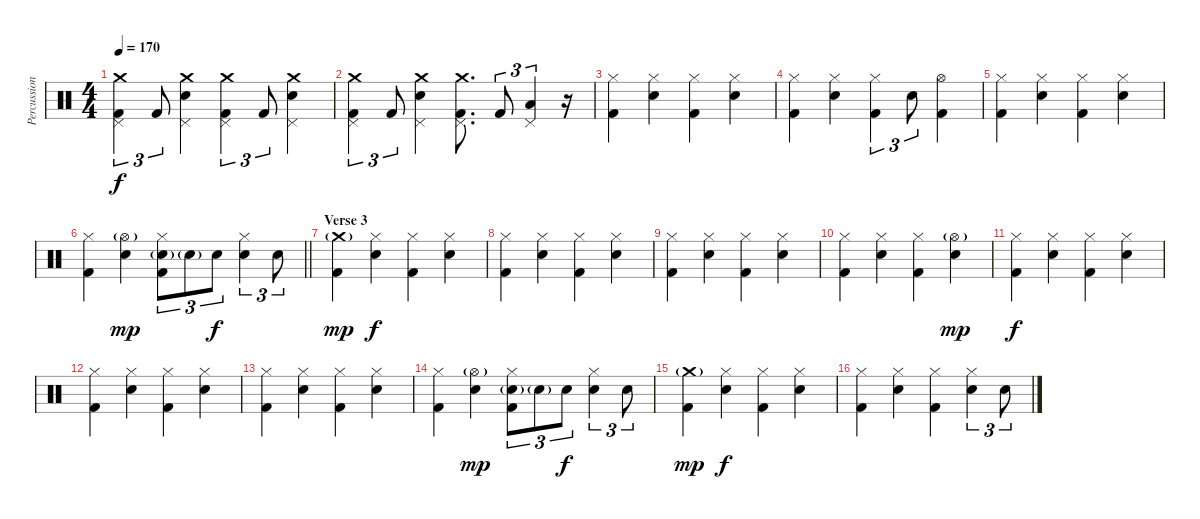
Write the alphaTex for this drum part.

\track ("Percussion" "Percussion") {instrument percussion}
\staff {score}
\articulation defaults
\ts (4 4)
\tempo 170
\clef neutral
\ks c
("Crash medium (hit)" "Pedal Hi-Hat (hit)" "Kick (hit) 2").4{tu (3 2) dy f} "Kick (hit) 2".8{tu (3 2)} ("Crash medium (hit)" "Pedal Hi-Hat (hit)" "Snare (hit) 2").4 ("Crash medium (hit)" "Pedal Hi-Hat (hit)" "Kick (hit) 2").4{tu (3 2)} "Kick (hit) 2".8{tu (3 2)} ("Crash medium (hit)" "Pedal Hi-Hat (hit)" "Snare (hit) 2").4 |
("Crash medium (hit)" "Pedal Hi-Hat (hit)" "Kick (hit) 2").4{tu (3 2)} "Kick (hit) 2".8{tu (3 2)} ("Crash medium (hit)" "Pedal Hi-Hat (hit)" "Snare (hit) 2").4 ("Crash medium (hit)" "Pedal Hi-Hat (hit)" "Kick (hit) 2").8{d} "Kick (hit) 2".8{tu (3 2)} ("Pedal Hi-Hat (hit)" "Low Floor Tom (hit)").4{tu (3 2)} r.16 |
("Hi-Hat (closed)" "Kick (hit) 2").4 ("Hi-Hat (closed)" "Snare (hit) 2").4 ("Hi-Hat (closed)" "Kick (hit) 2").4 ("Hi-Hat (closed)" "Snare (hit) 2").4 |
("Hi-Hat (closed)" "Kick (hit) 2").4 ("Hi-Hat (closed)" "Snare (hit) 2").4 ("Hi-Hat (closed)" "Kick (hit) 2").4{tu (3 2)} "Snare (hit) 2".8{tu (3 2)} ("Hi-Hat (open)" "Kick (hit) 2").4 |
("Hi-Hat (closed)" "Kick (hit) 2").4 ("Hi-Hat (closed)" "Snare (hit) 2").4 ("Hi-Hat (closed)" "Kick (hit) 2").4 ("Hi-Hat (closed)" "Snare (hit) 2").4 |
\barLineRight lightlight
("Hi-Hat (closed)" "Kick (hit) 2").4 ("Hi-Hat (open)"{g} "Snare (hit) 2").4{dy mp} ("Hi-Hat (closed)" "Snare (hit) 2"{g} "Kick (hit) 2").8{tu (3 2)} "Snare (hit) 2"{g}.8{tu (3 2)} "Snare (hit) 2".8{tu (3 2) dy f} ("Hi-Hat (closed)" "Snare (hit) 2").4{tu (3 2)} "Snare (hit) 2".8{tu (3 2)} |
\section ("" "Verse 3")
("Crash medium (hit)"{g} "Kick (hit) 2").4{dy mp} ("Hi-Hat (closed)" "Snare (hit) 2").4{dy f} ("Hi-Hat (closed)" "Kick (hit) 2").4 ("Hi-Hat (closed)" "Snare (hit) 2").4 |
("Hi-Hat (closed)" "Kick (hit) 2").4 ("Hi-Hat (closed)" "Snare (hit) 2").4 ("Hi-Hat (closed)" "Kick (hit) 2").4 ("Hi-Hat (closed)" "Snare (hit) 2").4 |
("Hi-Hat (closed)" "Kick (hit) 2").4 ("Hi-Hat (closed)" "Snare (hit) 2").4 ("Hi-Hat (closed)" "Kick (hit) 2").4 ("Hi-Hat (closed)" "Snare (hit) 2").4 |
("Hi-Hat (closed)" "Kick (hit) 2").4 ("Hi-Hat (closed)" "Snare (hit) 2").4 ("Hi-Hat (closed)" "Kick (hit) 2").4 ("Hi-Hat (open)"{g} "Snare (hit) 2").4{dy mp} |
("Hi-Hat (closed)" "Kick (hit) 2").4{dy f} ("Hi-Hat (closed)" "Snare (hit) 2").4 ("Hi-Hat (closed)" "Kick (hit) 2").4 ("Hi-Hat (closed)" "Snare (hit) 2").4 |
("Hi-Hat (closed)" "Kick (hit) 2").4 ("Hi-Hat (closed)" "Snare (hit) 2").4 ("Hi-Hat (closed)" "Kick (hit) 2").4 ("Hi-Hat (closed)" "Snare (hit) 2").4 |
("Hi-Hat (closed)" "Kick (hit) 2").4 ("Hi-Hat (closed)" "Snare (hit) 2").4 ("Hi-Hat (closed)" "Kick (hit) 2").4 ("Hi-Hat (closed)" "Snare (hit) 2").4 |
("Hi-Hat (closed)" "Kick (hit) 2").4 ("Hi-Hat (open)"{g} "Snare (hit) 2").4{dy mp} ("Hi-Hat (closed)" "Snare (hit) 2"{g} "Kick (hit) 2").8{tu (3 2)} "Snare (hit) 2"{g}.8{tu (3 2)} "Snare (hit) 2".8{tu (3 2) dy f} ("Hi-Hat (closed)" "Snare (hit) 2").4{tu (3 2)} "Snare (hit) 2".8{tu (3 2)} |
("Crash medium (hit)"{g} "Kick (hit) 2").4{dy mp} ("Hi-Hat (closed)" "Snare (hit) 2").4{dy f} ("Hi-Hat (closed)" "Kick (hit) 2").4 ("Hi-Hat (closed)" "Snare (hit) 2").4 |
("Hi-Hat (closed)" "Kick (hit) 2").4 ("Hi-Hat (closed)" "Snare (hit) 2").4 ("Hi-Hat (closed)" "Kick (hit) 2").4 ("Hi-Hat (closed)" "Snare (hit) 2").4{tu (3 2)} "Snare (hit) 2".8{tu (3 2)}
